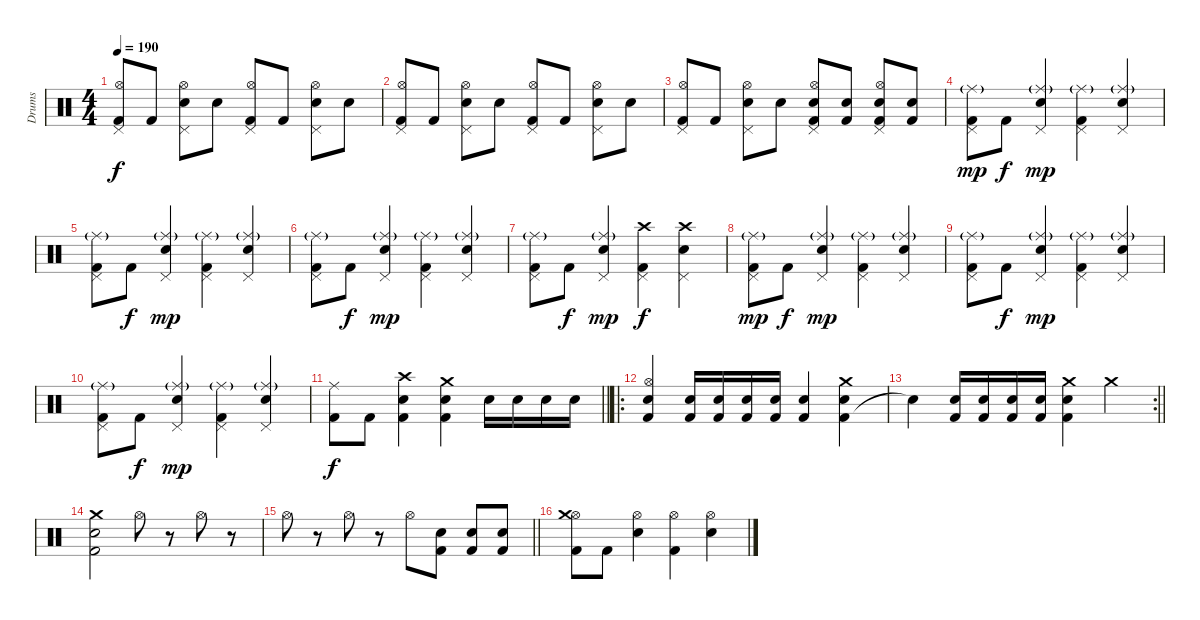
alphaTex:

\track ("Drums" "Drums") {instrument percussion}
\staff {score}
\articulation defaults
\ts (4 4)
\tempo 190
\clef neutral
\ks c
("Kick (hit) 2" "Hi-Hat (open)" "Pedal Hi-Hat (hit)").8{dy f} "Kick (hit) 2".8 ("Snare (hit) 2" "Hi-Hat (open)" "Pedal Hi-Hat (hit)").8 "Snare (hit) 2".8 ("Kick (hit) 2" "Hi-Hat (open)" "Pedal Hi-Hat (hit)").8 "Kick (hit) 2".8 ("Snare (hit) 2" "Hi-Hat (open)" "Pedal Hi-Hat (hit)").8 "Snare (hit) 2".8 |
("Kick (hit) 2" "Hi-Hat (open)" "Pedal Hi-Hat (hit)").8 "Kick (hit) 2".8 ("Snare (hit) 2" "Hi-Hat (open)" "Pedal Hi-Hat (hit)").8 "Snare (hit) 2".8 ("Kick (hit) 2" "Hi-Hat (open)" "Pedal Hi-Hat (hit)").8 "Kick (hit) 2".8 ("Snare (hit) 2" "Hi-Hat (open)" "Pedal Hi-Hat (hit)").8 "Snare (hit) 2".8 |
("Kick (hit) 2" "Hi-Hat (open)" "Pedal Hi-Hat (hit)").8 "Kick (hit) 2".8 ("Snare (hit) 2" "Hi-Hat (open)" "Pedal Hi-Hat (hit)").8 "Snare (hit) 2".8 ("Kick (hit) 2" "Snare (hit) 2" "Hi-Hat (open)" "Pedal Hi-Hat (hit)").8 ("Kick (hit) 2" "Snare (hit) 2").8 ("Kick (hit) 2" "Snare (hit) 2" "Hi-Hat (open)" "Pedal Hi-Hat (hit)").8 ("Kick (hit) 2" "Snare (hit) 2").8 |
("Kick (hit) 2" "Pedal Hi-Hat (hit)" "Ride (middle)"{g}).8{dy mp} "Kick (hit) 2".8{dy f} ("Snare (hit) 2" "Pedal Hi-Hat (hit)" "Ride (middle)"{g}).4{dy mp} ("Kick (hit) 2" "Pedal Hi-Hat (hit)" "Ride (middle)"{g}).4 ("Snare (hit) 2" "Pedal Hi-Hat (hit)" "Ride (middle)"{g}).4 |
("Kick (hit) 2" "Pedal Hi-Hat (hit)" "Ride (middle)"{g}).8 "Kick (hit) 2".8{dy f} ("Snare (hit) 2" "Pedal Hi-Hat (hit)" "Ride (middle)"{g}).4{dy mp} ("Kick (hit) 2" "Pedal Hi-Hat (hit)" "Ride (middle)"{g}).4 ("Snare (hit) 2" "Pedal Hi-Hat (hit)" "Ride (middle)"{g}).4 |
("Kick (hit) 2" "Pedal Hi-Hat (hit)" "Ride (middle)"{g}).8 "Kick (hit) 2".8{dy f} ("Snare (hit) 2" "Pedal Hi-Hat (hit)" "Ride (middle)"{g}).4{dy mp} ("Kick (hit) 2" "Pedal Hi-Hat (hit)" "Ride (middle)"{g}).4 ("Snare (hit) 2" "Pedal Hi-Hat (hit)" "Ride (middle)"{g}).4 |
("Kick (hit) 2" "Pedal Hi-Hat (hit)" "Ride (middle)"{g}).8 "Kick (hit) 2".8{dy f} ("Snare (hit) 2" "Pedal Hi-Hat (hit)" "Ride (middle)"{g}).4{dy mp} ("Kick (hit) 2" "Pedal Hi-Hat (hit)" "Crash high (hit)").4{dy f} ("Snare (hit) 2" "Pedal Hi-Hat (hit)" "Crash high (hit)").4 |
("Kick (hit) 2" "Pedal Hi-Hat (hit)" "Ride (middle)"{g}).8{dy mp} "Kick (hit) 2".8{dy f} ("Snare (hit) 2" "Pedal Hi-Hat (hit)" "Ride (middle)"{g}).4{dy mp} ("Kick (hit) 2" "Pedal Hi-Hat (hit)" "Ride (middle)"{g}).4 ("Snare (hit) 2" "Pedal Hi-Hat (hit)" "Ride (middle)"{g}).4 |
("Kick (hit) 2" "Pedal Hi-Hat (hit)" "Ride (middle)"{g}).8 "Kick (hit) 2".8{dy f} ("Snare (hit) 2" "Pedal Hi-Hat (hit)" "Ride (middle)"{g}).4{dy mp} ("Kick (hit) 2" "Pedal Hi-Hat (hit)" "Ride (middle)"{g}).4 ("Snare (hit) 2" "Pedal Hi-Hat (hit)" "Ride (middle)"{g}).4 |
("Kick (hit) 2" "Pedal Hi-Hat (hit)" "Ride (middle)"{g}).8 "Kick (hit) 2".8{dy f} ("Snare (hit) 2" "Pedal Hi-Hat (hit)" "Ride (middle)"{g}).4{dy mp} ("Kick (hit) 2" "Pedal Hi-Hat (hit)" "Ride (middle)"{g}).4 ("Snare (hit) 2" "Pedal Hi-Hat (hit)" "Ride (middle)"{g}).4 |
\barLineRight lightlight
("Kick (hit) 2" "Ride (middle)").8{dy f} "Kick (hit) 2".8 ("Kick (hit) 2" "Snare (hit) 2" "Crash high (hit)").4 ("Kick (hit) 2" "Snare (hit) 2" "Crash medium (hit)").4 "Snare (hit) 2".16 "Snare (hit) 2".16 "Snare (hit) 2".16 "Snare (hit) 2".16 |
\ro
\section ("" "")
("Kick (hit) 2" "Snare (hit) 2" "Hi-Hat (open)").4 ("Kick (hit) 2" "Snare (hit) 2").16 ("Kick (hit) 2" "Snare (hit) 2").16 ("Kick (hit) 2" "Snare (hit) 2").16 ("Kick (hit) 2" "Snare (hit) 2").16 ("Kick (hit) 2" "Snare (hit) 2").4 ("Kick (hit) 2" "Snare (hit) 2" "Crash medium (hit)").4 |
\rc 2
\barLineRight lightlight "Snare (hit)"{t}.4
("Kick (hit) 2" "Snare (hit) 2").16 ("Kick (hit) 2" "Snare (hit) 2").16 ("Kick (hit) 2" "Snare (hit) 2").16 ("Kick (hit) 2" "Snare (hit) 2").16 ("Kick (hit) 2" "Snare (hit) 2" "Crash medium (hit)").4 "Crash medium (hit)".4 |
\section ("" "")
("Kick (hit) 2" "Snare (hit) 2" "Crash medium (hit)").2 "Hi-Hat (open)".8 r.8 "Hi-Hat (open)".8 r.8 |
\barLineRight lightlight "Hi-Hat (open)".8
r.8 "Hi-Hat (open)".8 r.8 "Hi-Hat (open)".8 ("Kick (hit) 2" "Snare (hit) 2").8 ("Kick (hit) 2" "Snare (hit) 2").8 ("Kick (hit) 2" "Snare (hit) 2").8 |
\section ("" "")
("Kick (hit) 2" "Hi-Hat (open)" "Crash medium (hit)").8 "Kick (hit) 2".8 ("Snare (hit) 2" "Hi-Hat (open)").4 ("Kick (hit) 2" "Hi-Hat (open)").4 ("Snare (hit) 2" "Hi-Hat (open)").4
